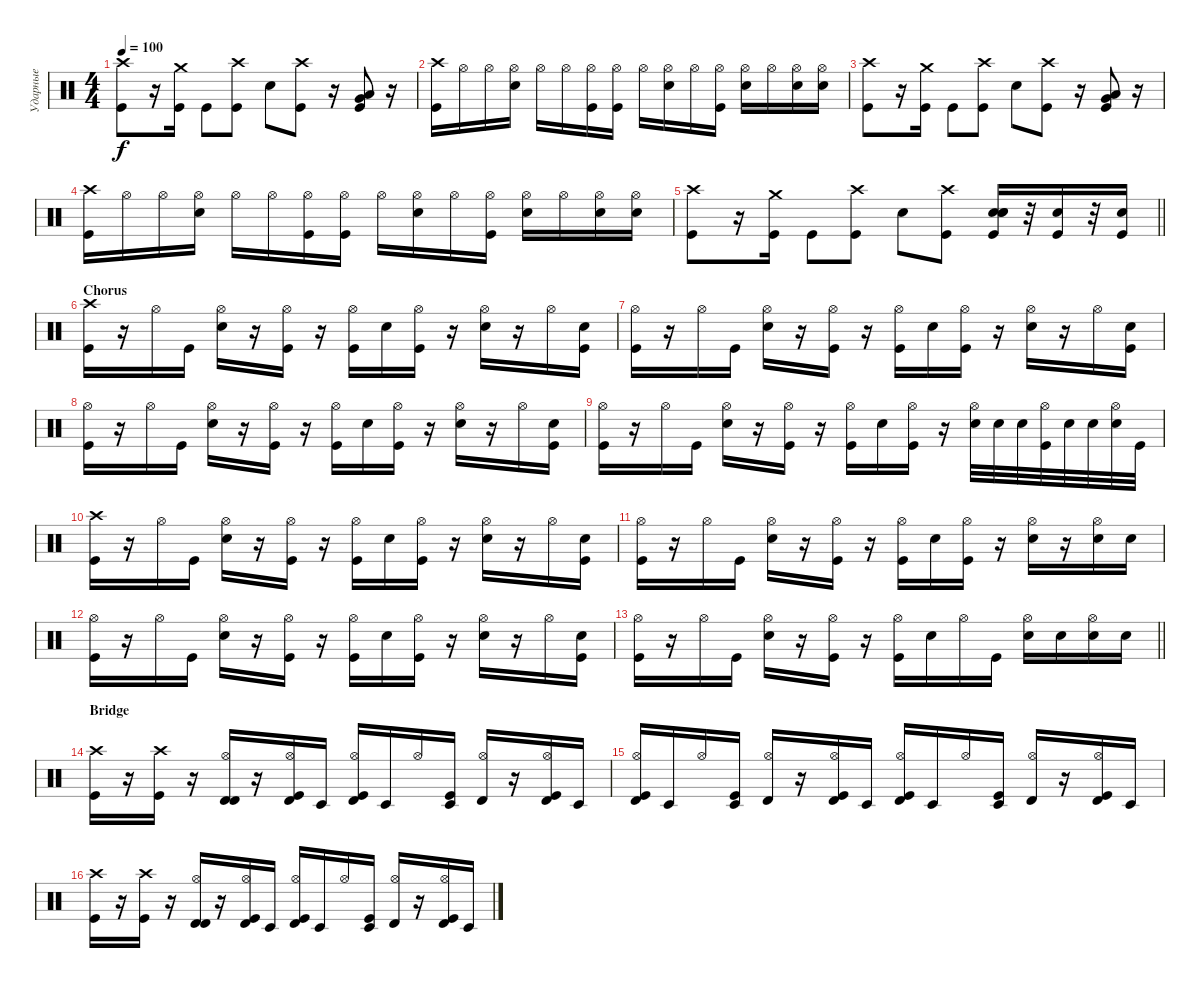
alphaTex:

\track ("Ударные" "Ударные") {instrument percussion}
\staff {score}
\articulation defaults
\ts (4 4)
\tempo 100
\clef neutral
\ks c
("Crash high (hit)" "Kick (hit)").8{dy f} r.16 ("Crash medium (hit)" "Kick (hit)").16 "Kick (hit)".8 ("Crash high (hit)" "Kick (hit)").8 "Snare (hit) 2".8 ("Crash high (hit)" "Kick (hit)").8 r.16 ("Low Tom (hit)" "Very Low Tom (hit)" "Kick (hit)").8 r.16 |
("Crash high (hit)" "Kick (hit)").16 "Hi-Hat (open)".16 "Hi-Hat (open)".16 ("Hi-Hat (open)" "Snare (hit) 2").16 "Hi-Hat (open)".16 "Hi-Hat (open)".16 ("Hi-Hat (open)" "Kick (hit)").16 ("Hi-Hat (open)" "Kick (hit)").16 "Hi-Hat (open)".16 ("Hi-Hat (open)" "Snare (hit) 2").16 "Hi-Hat (open)".16 ("Hi-Hat (open)" "Kick (hit)").16 ("Hi-Hat (open)" "Snare (hit) 2").16 "Hi-Hat (open)".16 ("Hi-Hat (open)" "Snare (hit) 2").16 ("Hi-Hat (open)" "Snare (hit) 2").16 |
("Crash high (hit)" "Kick (hit)").8 r.16 ("Crash medium (hit)" "Kick (hit)").16 "Kick (hit)".8 ("Crash high (hit)" "Kick (hit)").8 "Snare (hit) 2".8 ("Crash high (hit)" "Kick (hit)").8 r.16 ("Very Low Tom (hit)" "Low Floor Tom (hit)" "Kick (hit)").8 r.16 |
("Crash high (hit)" "Kick (hit)").16 "Hi-Hat (open)".16 "Hi-Hat (open)".16 ("Hi-Hat (open)" "Snare (hit) 2").16 "Hi-Hat (open)".16 "Hi-Hat (open)".16 ("Hi-Hat (open)" "Kick (hit)").16 ("Hi-Hat (open)" "Kick (hit)").16 "Hi-Hat (open)".16 ("Hi-Hat (open)" "Snare (hit) 2").16 "Hi-Hat (open)".16 ("Hi-Hat (open)" "Kick (hit)").16 ("Hi-Hat (open)" "Snare (hit) 2").16 "Hi-Hat (open)".16 ("Hi-Hat (open)" "Snare (hit) 2").16 ("Hi-Hat (open)" "Snare (hit) 2").16 |
\barLineRight lightlight
("Crash high (hit)" "Kick (hit)").8 r.16 ("Crash medium (hit)" "Kick (hit)").16 "Kick (hit)".8 ("Crash high (hit)" "Kick (hit)").8 "Snare (hit) 2".8 ("Crash high (hit)" "Kick (hit)").8 ("Snare (hit) 2" "Snare (hit) 2" "Snare (hit) 2" "Kick (hit)").16{bu 480} r.32 ("Snare (hit) 2" "Kick (hit)").16 r.32 ("Snare (hit) 2" "Kick (hit)").16 |
\section ("" "Chorus")
("Crash high (hit)" "Kick (hit)").16 r.16 "Hi-Hat (open)".16 "Kick (hit)".16 ("Hi-Hat (open)" "Snare (hit) 2").16 r.16 ("Hi-Hat (open)" "Kick (hit)").16 r.16 ("Hi-Hat (open)" "Kick (hit)").16 "Snare (hit) 2".16 ("Hi-Hat (open)" "Kick (hit)").16 r.16 ("Hi-Hat (open)" "Snare (hit) 2").16 r.16 "Hi-Hat (open)".16 ("Snare (hit) 2" "Kick (hit)").16 |
("Hi-Hat (open)" "Kick (hit)").16 r.16 "Hi-Hat (open)".16 "Kick (hit)".16 ("Hi-Hat (open)" "Snare (hit) 2").16 r.16 ("Hi-Hat (open)" "Kick (hit)").16 r.16 ("Hi-Hat (open)" "Kick (hit)").16 "Snare (hit) 2".16 ("Hi-Hat (open)" "Kick (hit)").16 r.16 ("Hi-Hat (open)" "Snare (hit) 2").16 r.16 "Hi-Hat (open)".16 ("Snare (hit) 2" "Kick (hit)").16 |
("Hi-Hat (open)" "Kick (hit)").16 r.16 "Hi-Hat (open)".16 "Kick (hit)".16 ("Hi-Hat (open)" "Snare (hit) 2").16 r.16 ("Hi-Hat (open)" "Kick (hit)").16 r.16 ("Hi-Hat (open)" "Kick (hit)").16 "Snare (hit) 2".16 ("Hi-Hat (open)" "Kick (hit)").16 r.16 ("Hi-Hat (open)" "Snare (hit) 2").16 r.16 "Hi-Hat (open)".16 ("Snare (hit) 2" "Kick (hit)").16 |
("Hi-Hat (open)" "Kick (hit)").16 r.16 "Hi-Hat (open)".16 "Kick (hit)".16 ("Hi-Hat (open)" "Snare (hit) 2").16 r.16 ("Hi-Hat (open)" "Kick (hit)").16 r.16 ("Hi-Hat (open)" "Kick (hit)").16 "Snare (hit) 2".16 ("Hi-Hat (open)" "Kick (hit)").16 r.16 ("Hi-Hat (open)" "Snare (hit) 2").32 "Snare (hit) 2".32 "Snare (hit) 2".32 ("Hi-Hat (open)" "Kick (hit)").32 "Snare (hit) 2".32 "Snare (hit) 2".32 ("Hi-Hat (open)" "Snare (hit) 2").32 "Kick (hit)".32 |
("Crash high (hit)" "Kick (hit)").16 r.16 "Hi-Hat (open)".16 "Kick (hit)".16 ("Hi-Hat (open)" "Snare (hit) 2").16 r.16 ("Hi-Hat (open)" "Kick (hit)").16 r.16 ("Hi-Hat (open)" "Kick (hit)").16 "Snare (hit) 2".16 ("Hi-Hat (open)" "Kick (hit)").16 r.16 ("Hi-Hat (open)" "Snare (hit) 2").16 r.16 "Hi-Hat (open)".16 ("Snare (hit) 2" "Kick (hit)").16 |
("Hi-Hat (open)" "Kick (hit)").16 r.16 "Hi-Hat (open)".16 "Kick (hit)".16 ("Hi-Hat (open)" "Snare (hit) 2").16 r.16 ("Hi-Hat (open)" "Kick (hit)").16 r.16 ("Hi-Hat (open)" "Kick (hit)").16 "Snare (hit) 2".16 ("Hi-Hat (open)" "Kick (hit)").16 r.16 ("Hi-Hat (open)" "Snare (hit) 2").16 r.16 ("Hi-Hat (open)" "Snare (hit) 2").16 "Snare (hit) 2".16 |
("Hi-Hat (open)" "Kick (hit)").16 r.16 "Hi-Hat (open)".16 "Kick (hit)".16 ("Hi-Hat (open)" "Snare (hit) 2").16 r.16 ("Hi-Hat (open)" "Kick (hit)").16 r.16 ("Hi-Hat (open)" "Kick (hit)").16 "Snare (hit) 2".16 ("Hi-Hat (open)" "Kick (hit)").16 r.16 ("Hi-Hat (open)" "Snare (hit) 2").16 r.16 "Hi-Hat (open)".16 ("Snare (hit) 2" "Kick (hit)").16 |
\barLineRight lightlight
("Hi-Hat (open)" "Kick (hit)").16 r.16 "Hi-Hat (open)".16 "Kick (hit)".16 ("Hi-Hat (open)" "Snare (hit) 2").16 r.16 ("Hi-Hat (open)" "Kick (hit)").16 r.16 ("Hi-Hat (open)" "Kick (hit)").16 "Snare (hit) 2".16 "Hi-Hat (open)".16 "Kick (hit)".16 ("Hi-Hat (open)" "Snare (hit) 2").16 "Snare (hit) 2".16 ("Hi-Hat (open)" "Snare (hit) 2").16 "Snare (hit) 2".16 |
\section ("" "Bridge")
("Crash high (hit)" "Kick (hit)").16 r.16 ("Crash high (hit)" "Kick (hit)").16 r.16 ("Hi-Hat (open)" "Timbale high (hit)" "Timbale high (hit)").16{bu 480} r.16 ("Hi-Hat (open)" "Timbale high (hit)" "Kick (hit)").16 "Timbale low (hit)".16 ("Hi-Hat (open)" "Timbale high (hit)" "Kick (hit)").16 "Timbale low (hit)".16 "Hi-Hat (open)".16 ("Timbale low (hit)" "Kick (hit)").16 ("Hi-Hat (open)" "Timbale high (hit)").16 r.16 ("Hi-Hat (open)" "Timbale high (hit)" "Kick (hit)").16 "Timbale low (hit)".16 |
("Hi-Hat (open)" "Timbale high (hit)" "Kick (hit)").16 "Timbale low (hit)".16 "Hi-Hat (open)".16 ("Timbale low (hit)" "Kick (hit)").16 ("Hi-Hat (open)" "Timbale high (hit)").16 r.16 ("Hi-Hat (open)" "Timbale high (hit)" "Kick (hit)").16 "Timbale low (hit)".16 ("Hi-Hat (open)" "Timbale high (hit)" "Kick (hit)").16 "Timbale low (hit)".16 "Hi-Hat (open)".16 ("Timbale low (hit)" "Kick (hit)").16 ("Hi-Hat (open)" "Timbale high (hit)").16 r.16 ("Hi-Hat (open)" "Timbale high (hit)" "Kick (hit)").16 "Timbale low (hit)".16 |
("Crash high (hit)" "Kick (hit)").16 r.16 ("Crash high (hit)" "Kick (hit)").16 r.16 ("Hi-Hat (open)" "Timbale high (hit)" "Timbale high (hit)").16{bu 480} r.16 ("Hi-Hat (open)" "Timbale high (hit)" "Kick (hit)").16 "Timbale low (hit)".16 ("Hi-Hat (open)" "Timbale high (hit)" "Kick (hit)").16 "Timbale low (hit)".16 "Hi-Hat (open)".16 ("Timbale low (hit)" "Kick (hit)").16 ("Hi-Hat (open)" "Timbale high (hit)").16 r.16 ("Hi-Hat (open)" "Timbale high (hit)" "Kick (hit)").16 "Timbale low (hit)".16
